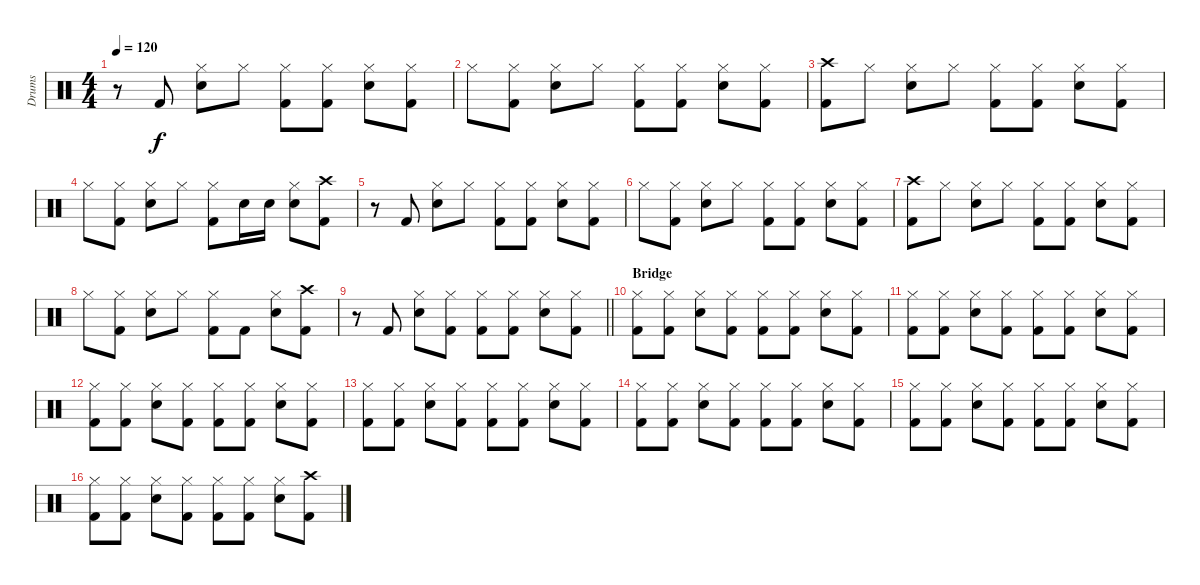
\track ("Drums" "Drums") {instrument percussion}
\staff {score}
\articulation defaults
\ts (4 4)
\tempo 120
\clef neutral
\ks c
r.8{dy f} "Kick (hit) 2".8 ("Hi-Hat (closed)" "Snare (hit) 2").8 "Hi-Hat (closed)".8 ("Hi-Hat (closed)" "Kick (hit) 2").8 ("Hi-Hat (closed)" "Kick (hit) 2").8 ("Hi-Hat (closed)" "Snare (hit) 2").8 ("Hi-Hat (closed)" "Kick (hit) 2").8 |
"Hi-Hat (closed)".8 ("Hi-Hat (closed)" "Kick (hit) 2").8 ("Hi-Hat (closed)" "Snare (hit) 2").8 "Hi-Hat (closed)".8 ("Hi-Hat (closed)" "Kick (hit) 2").8 ("Hi-Hat (closed)" "Kick (hit) 2").8 ("Hi-Hat (closed)" "Snare (hit) 2").8 ("Hi-Hat (closed)" "Kick (hit) 2").8 |
("Crash high (hit)" "Kick (hit) 2").8 "Hi-Hat (closed)".8 ("Hi-Hat (closed)" "Snare (hit) 2").8 "Hi-Hat (closed)".8 ("Hi-Hat (closed)" "Kick (hit) 2").8 ("Hi-Hat (closed)" "Kick (hit) 2").8 ("Hi-Hat (closed)" "Snare (hit) 2").8 ("Hi-Hat (closed)" "Kick (hit) 2").8 |
"Hi-Hat (closed)".8 ("Hi-Hat (closed)" "Kick (hit) 2").8 ("Hi-Hat (closed)" "Snare (hit) 2").8 "Hi-Hat (closed)".8 ("Hi-Hat (closed)" "Kick (hit) 2").8 "Snare (hit) 2".16 "Snare (hit) 2".16 ("Hi-Hat (closed)" "Snare (hit) 2").8 ("Crash high (hit)" "Kick (hit) 2").8 |
r.8 "Kick (hit) 2".8 ("Hi-Hat (closed)" "Snare (hit) 2").8 "Hi-Hat (closed)".8 ("Hi-Hat (closed)" "Kick (hit) 2").8 ("Hi-Hat (closed)" "Kick (hit) 2").8 ("Hi-Hat (closed)" "Snare (hit) 2").8 ("Hi-Hat (closed)" "Kick (hit) 2").8 |
"Hi-Hat (closed)".8 ("Hi-Hat (closed)" "Kick (hit) 2").8 ("Hi-Hat (closed)" "Snare (hit) 2").8 "Hi-Hat (closed)".8 ("Hi-Hat (closed)" "Kick (hit) 2").8 ("Hi-Hat (closed)" "Kick (hit) 2").8 ("Hi-Hat (closed)" "Snare (hit) 2").8 ("Hi-Hat (closed)" "Kick (hit) 2").8 |
("Crash high (hit)" "Kick (hit) 2").8 "Hi-Hat (closed)".8 ("Hi-Hat (closed)" "Snare (hit) 2").8 "Hi-Hat (closed)".8 ("Hi-Hat (closed)" "Kick (hit) 2").8 ("Hi-Hat (closed)" "Kick (hit) 2").8 ("Hi-Hat (closed)" "Snare (hit) 2").8 ("Hi-Hat (closed)" "Kick (hit) 2").8 |
"Hi-Hat (closed)".8 ("Hi-Hat (closed)" "Kick (hit) 2").8 ("Hi-Hat (closed)" "Snare (hit) 2").8 "Hi-Hat (closed)".8 ("Hi-Hat (closed)" "Kick (hit) 2").8 "Kick (hit) 2".8 ("Hi-Hat (closed)" "Snare (hit) 2").8 ("Crash high (hit)" "Kick (hit) 2").8 |
\barLineRight lightlight
r.8 "Kick (hit) 2".8 ("Hi-Hat (closed)" "Snare (hit) 2").8 ("Hi-Hat (closed)" "Kick (hit) 2").8 ("Hi-Hat (closed)" "Kick (hit) 2").8 ("Hi-Hat (closed)" "Kick (hit) 2").8 ("Hi-Hat (closed)" "Snare (hit) 2").8 ("Hi-Hat (closed)" "Kick (hit) 2").8 |
\section ("" "Bridge")
("Hi-Hat (closed)" "Kick (hit) 2").8 ("Hi-Hat (closed)" "Kick (hit) 2").8 ("Hi-Hat (closed)" "Snare (hit) 2").8 ("Hi-Hat (closed)" "Kick (hit) 2").8 ("Hi-Hat (closed)" "Kick (hit) 2").8 ("Hi-Hat (closed)" "Kick (hit) 2").8 ("Hi-Hat (closed)" "Snare (hit) 2").8 ("Hi-Hat (closed)" "Kick (hit) 2").8 |
("Hi-Hat (closed)" "Kick (hit) 2").8 ("Hi-Hat (closed)" "Kick (hit) 2").8 ("Hi-Hat (closed)" "Snare (hit) 2").8 ("Hi-Hat (closed)" "Kick (hit) 2").8 ("Hi-Hat (closed)" "Kick (hit) 2").8 ("Hi-Hat (closed)" "Kick (hit) 2").8 ("Hi-Hat (closed)" "Snare (hit) 2").8 ("Hi-Hat (closed)" "Kick (hit) 2").8 |
("Hi-Hat (closed)" "Kick (hit) 2").8 ("Hi-Hat (closed)" "Kick (hit) 2").8 ("Hi-Hat (closed)" "Snare (hit) 2").8 ("Hi-Hat (closed)" "Kick (hit) 2").8 ("Hi-Hat (closed)" "Kick (hit) 2").8 ("Hi-Hat (closed)" "Kick (hit) 2").8 ("Hi-Hat (closed)" "Snare (hit) 2").8 ("Hi-Hat (closed)" "Kick (hit) 2").8 |
("Hi-Hat (closed)" "Kick (hit) 2").8 ("Hi-Hat (closed)" "Kick (hit) 2").8 ("Hi-Hat (closed)" "Snare (hit) 2").8 ("Hi-Hat (closed)" "Kick (hit) 2").8 ("Hi-Hat (closed)" "Kick (hit) 2").8 ("Hi-Hat (closed)" "Kick (hit) 2").8 ("Hi-Hat (closed)" "Snare (hit) 2").8 ("Hi-Hat (closed)" "Kick (hit) 2").8 |
("Hi-Hat (closed)" "Kick (hit) 2").8 ("Hi-Hat (closed)" "Kick (hit) 2").8 ("Hi-Hat (closed)" "Snare (hit) 2").8 ("Hi-Hat (closed)" "Kick (hit) 2").8 ("Hi-Hat (closed)" "Kick (hit) 2").8 ("Hi-Hat (closed)" "Kick (hit) 2").8 ("Hi-Hat (closed)" "Snare (hit) 2").8 ("Hi-Hat (closed)" "Kick (hit) 2").8 |
("Hi-Hat (closed)" "Kick (hit) 2").8 ("Hi-Hat (closed)" "Kick (hit) 2").8 ("Hi-Hat (closed)" "Snare (hit) 2").8 ("Hi-Hat (closed)" "Kick (hit) 2").8 ("Hi-Hat (closed)" "Kick (hit) 2").8 ("Hi-Hat (closed)" "Kick (hit) 2").8 ("Hi-Hat (closed)" "Snare (hit) 2").8 ("Hi-Hat (closed)" "Kick (hit) 2").8 |
("Hi-Hat (closed)" "Kick (hit) 2").8 ("Hi-Hat (closed)" "Kick (hit) 2").8 ("Hi-Hat (closed)" "Snare (hit) 2").8 ("Hi-Hat (closed)" "Kick (hit) 2").8 ("Hi-Hat (closed)" "Kick (hit) 2").8 ("Hi-Hat (closed)" "Kick (hit) 2").8 ("Hi-Hat (closed)" "Snare (hit) 2").8 ("Crash high (hit)" "Kick (hit) 2").8
